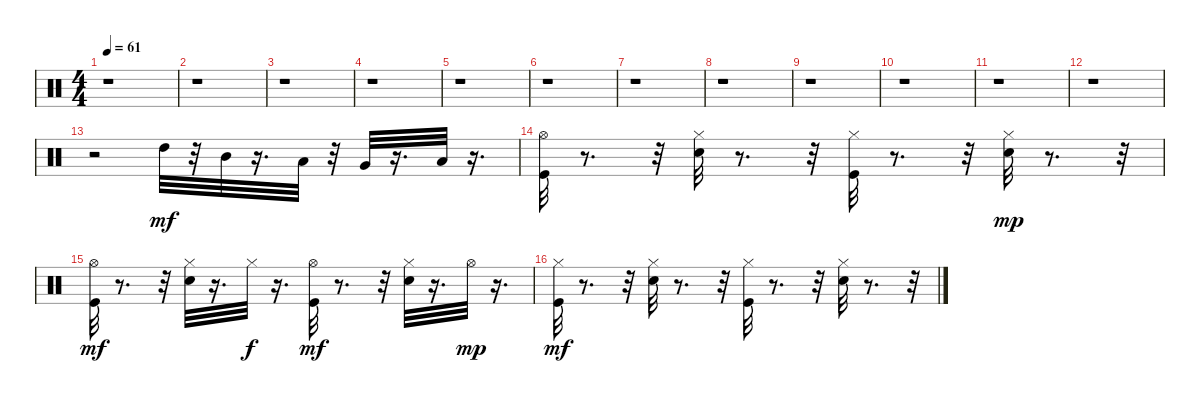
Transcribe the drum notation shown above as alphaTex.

\track "" {instrument percussion}
\staff {score}
\articulation defaults
\ts (4 4)
\tempo 61
\clef neutral
\ks c
r.1{dy mf} |
r.1 |
r.1 |
r.1 |
r.1 |
r.1 |
r.1 |
r.1 |
r.1 |
r.1 |
r.1 |
r.1 |
r.2 "High Tom (hit)".32 r.32 "Mid Tom (hit)".32 r.16{d} "Low Tom (hit)".32 r.32 "Very Low Tom (hit)".32 r.16{d} "Low Floor Tom (hit)".32 r.16{d} |
("Hi-Hat (open)" "Kick (hit)").32 r.8{d} r.32 ("Hi-Hat (closed)" "Electric Snare (hit)").32 r.8{d} r.32 ("Hi-Hat (closed)" "Kick (hit)").32 r.8{d} r.32 ("Electric Snare (hit)" "Hi-Hat (closed)").32{dy mp} r.8{d} r.32 |
("Hi-Hat (open)" "Kick (hit)").32{dy mf} r.8{d} r.32 ("Hi-Hat (closed)" "Electric Snare (hit)").32 r.16{d} "Hi-Hat (closed)".32{dy f} r.16{d} ("Hi-Hat (open)" "Kick (hit)").32{dy mf} r.8{d} r.32 ("Hi-Hat (closed)" "Electric Snare (hit)").32 r.16{d} "Hi-Hat (open)".32{dy mp} r.16{d} |
("Hi-Hat (closed)" "Kick (hit)").32{dy mf} r.8{d} r.32 ("Hi-Hat (closed)" "Electric Snare (hit)").32 r.8{d} r.32 ("Hi-Hat (closed)" "Kick (hit)").32 r.8{d} r.32 ("Hi-Hat (closed)" "Electric Snare (hit)").32 r.8{d} r.32
